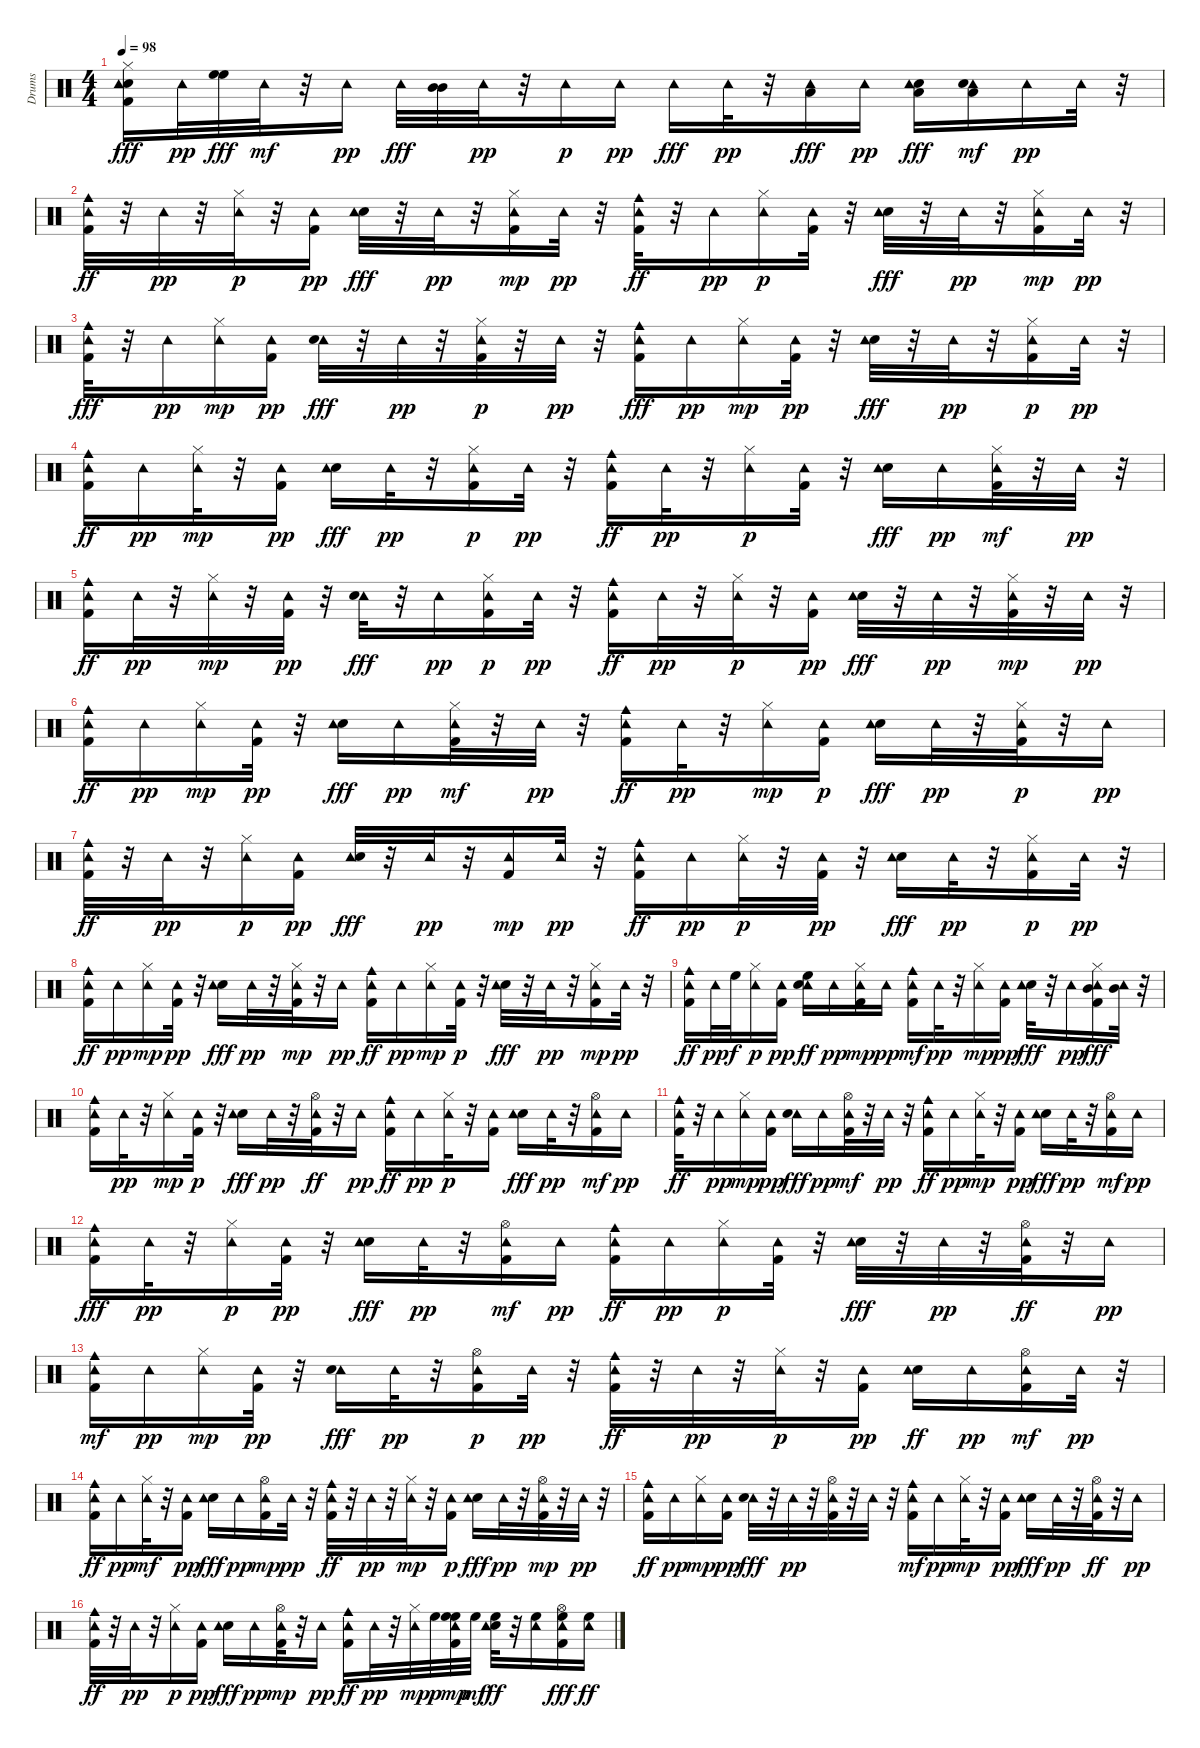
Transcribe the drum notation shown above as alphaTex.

\track ("Drums" "Drums") {instrument percussion}
\staff {score}
\articulation defaults
\ts (4 4)
\tempo 98
\clef neutral
\ks c
("Electric Snare (hit)" "Tambourine (hit)" "Kick (hit) 2" "Hi-Hat (closed)").16{dy fff} "Tambourine (hit)".32{dy pp} ("High Floor Tom (hit)" "High Floor Tom (hit)").32{dy fff} "Tambourine (hit)".32{dy mf} r.32 "Tambourine (hit)".16{dy pp} "Tambourine (hit)".32{dy fff} ("Mid Tom (hit)" "Mid Tom (hit)").32 "Tambourine (hit)".32{dy pp} r.32 "Tambourine (hit)".16{dy p} "Tambourine (hit)".16{dy pp} "Tambourine (hit)".16{dy fff} "Tambourine (hit)".32{dy pp} r.32 ("Tambourine (hit)" "Low Floor Tom (hit)").16{dy fff} "Tambourine (hit)".16{dy pp} ("Electric Snare (hit)" "Tambourine (hit)" "Low Floor Tom (hit)").16{dy fff} ("Low Floor Tom (hit)" "Tambourine (hit)" "Electric Snare (hit)").16{dy mf} "Tambourine (hit)".16{dy pp} "Tambourine (hit)".32 r.32 |
("Tambourine (hit)" "Kick (hit) 2" "Cowbell medium (hit)").32{dy ff} r.32 "Tambourine (hit)".32{dy pp} r.32 ("Hi-Hat (closed)" "Tambourine (hit)").32{dy p} r.32 ("Kick (hit) 2" "Tambourine (hit)").16{dy pp} ("Electric Snare (hit)" "Tambourine (hit)").32{dy fff} r.32 "Tambourine (hit)".32{dy pp} r.32 ("Hi-Hat (closed)" "Kick (hit) 2" "Tambourine (hit)").16{dy mp} "Tambourine (hit)".32{dy pp} r.32 ("Tambourine (hit)" "Kick (hit) 2" "Cowbell medium (hit)").32{dy ff} r.32 "Tambourine (hit)".16{dy pp} ("Hi-Hat (closed)" "Tambourine (hit)").16{dy p} ("Kick (hit) 2" "Tambourine (hit)").32 r.32 ("Electric Snare (hit)" "Tambourine (hit)").32{dy fff} r.32 "Tambourine (hit)".32{dy pp} r.32 ("Kick (hit) 2" "Hi-Hat (closed)" "Tambourine (hit)").16{dy mp} "Tambourine (hit)".32{dy pp} r.32 |
("Tambourine (hit)" "Kick (hit) 2" "Cowbell medium (hit)").32{dy fff} r.32 "Tambourine (hit)".16{dy pp} ("Hi-Hat (closed)" "Tambourine (hit)").16{dy mp} ("Kick (hit) 2" "Tambourine (hit)").16{dy pp} ("Tambourine (hit)" "Electric Snare (hit)").32{dy fff} r.32 "Tambourine (hit)".32{dy pp} r.32 ("Hi-Hat (closed)" "Kick (hit) 2" "Tambourine (hit)").32{dy p} r.32 "Tambourine (hit)".32{dy pp} r.32 ("Tambourine (hit)" "Kick (hit) 2" "Cowbell medium (hit)").16{dy fff} "Tambourine (hit)".16{dy pp} ("Hi-Hat (closed)" "Tambourine (hit)").16{dy mp} ("Kick (hit) 2" "Tambourine (hit)").32{dy pp} r.32 ("Electric Snare (hit)" "Tambourine (hit)").32{dy fff} r.32 "Tambourine (hit)".32{dy pp} r.32 ("Hi-Hat (closed)" "Kick (hit) 2" "Tambourine (hit)").16{dy p} "Tambourine (hit)".32{dy pp} r.32 |
("Tambourine (hit)" "Kick (hit) 2" "Cowbell medium (hit)").16{dy ff} "Tambourine (hit)".16{dy pp} ("Hi-Hat (closed)" "Tambourine (hit)").32{dy mp} r.32 ("Kick (hit) 2" "Tambourine (hit)").16{dy pp} ("Electric Snare (hit)" "Tambourine (hit)").16{dy fff} "Tambourine (hit)".32{dy pp} r.32 ("Hi-Hat (closed)" "Kick (hit) 2" "Tambourine (hit)").16{dy p} "Tambourine (hit)".32{dy pp} r.32 ("Tambourine (hit)" "Kick (hit) 2" "Cowbell medium (hit)").16{dy ff} "Tambourine (hit)".32{dy pp} r.32 ("Hi-Hat (closed)" "Tambourine (hit)").16{dy p} ("Kick (hit) 2" "Tambourine (hit)").32 r.32 ("Electric Snare (hit)" "Tambourine (hit)").16{dy fff} "Tambourine (hit)".16{dy pp} ("Kick (hit) 2" "Hi-Hat (closed)" "Tambourine (hit)").32{dy mf} r.32 "Tambourine (hit)".32{dy pp} r.32 |
("Tambourine (hit)" "Kick (hit) 2" "Cowbell medium (hit)").16{dy ff} "Tambourine (hit)".32{dy pp} r.32 ("Hi-Hat (closed)" "Tambourine (hit)").32{dy mp} r.32 ("Kick (hit) 2" "Tambourine (hit)").32{dy pp} r.32 ("Tambourine (hit)" "Electric Snare (hit)").32{dy fff} r.32 "Tambourine (hit)".16{dy pp} ("Hi-Hat (closed)" "Kick (hit) 2" "Tambourine (hit)").16{dy p} "Tambourine (hit)".32{dy pp} r.32 ("Tambourine (hit)" "Kick (hit) 2" "Cowbell medium (hit)").16{dy ff} "Tambourine (hit)".32{dy pp} r.32 ("Hi-Hat (closed)" "Tambourine (hit)").32{dy p} r.32 ("Kick (hit) 2" "Tambourine (hit)").16{dy pp} ("Electric Snare (hit)" "Tambourine (hit)").32{dy fff} r.32 "Tambourine (hit)".32{dy pp} r.32 ("Hi-Hat (closed)" "Kick (hit) 2" "Tambourine (hit)").32{dy mp} r.32 "Tambourine (hit)".32{dy pp} r.32 |
("Tambourine (hit)" "Kick (hit) 2" "Cowbell medium (hit)").16{dy ff} "Tambourine (hit)".16{dy pp} ("Hi-Hat (closed)" "Tambourine (hit)").16{dy mp} ("Kick (hit) 2" "Tambourine (hit)").32{dy pp} r.32 ("Electric Snare (hit)" "Tambourine (hit)").16{dy fff} "Tambourine (hit)".16{dy pp} ("Hi-Hat (closed)" "Kick (hit) 2" "Tambourine (hit)").32{dy mf} r.32 "Tambourine (hit)".32{dy pp} r.32 ("Tambourine (hit)" "Cowbell medium (hit)" "Kick (hit) 2").16{dy ff} "Tambourine (hit)".32{dy pp} r.32 ("Hi-Hat (closed)" "Tambourine (hit)").16{dy mp} ("Kick (hit) 2" "Tambourine (hit)").16{dy p} ("Electric Snare (hit)" "Tambourine (hit)").16{dy fff} "Tambourine (hit)".32{dy pp} r.32 ("Kick (hit) 2" "Hi-Hat (closed)" "Tambourine (hit)").32{dy p} r.32 "Tambourine (hit)".16{dy pp} |
("Tambourine (hit)" "Kick (hit) 2" "Cowbell medium (hit)").32{dy ff} r.32 "Tambourine (hit)".32{dy pp} r.32 ("Hi-Hat (closed)" "Tambourine (hit)").16{dy p} ("Kick (hit) 2" "Tambourine (hit)").16{dy pp} ("Tambourine (hit)" "Electric Snare (hit)").32{dy fff} r.32 "Tambourine (hit)".32{dy pp} r.32 ("Kick (hit) 2" "Tambourine (hit)").16{dy mp} "Tambourine (hit)".32{dy pp} r.32 ("Tambourine (hit)" "Kick (hit) 2" "Cowbell medium (hit)").16{dy ff} "Tambourine (hit)".16{dy pp} ("Hi-Hat (closed)" "Tambourine (hit)").32{dy p} r.32 ("Kick (hit) 2" "Tambourine (hit)").32{dy pp} r.32 ("Electric Snare (hit)" "Tambourine (hit)").16{dy fff} "Tambourine (hit)".32{dy pp} r.32 ("Hi-Hat (closed)" "Kick (hit) 2" "Tambourine (hit)").16{dy p} "Tambourine (hit)".32{dy pp} r.32 |
("Tambourine (hit)" "Kick (hit) 2" "Cowbell medium (hit)").16{dy ff} "Tambourine (hit)".16{dy pp} ("Hi-Hat (closed)" "Tambourine (hit)").16{dy mp} ("Kick (hit) 2" "Tambourine (hit)").32{dy pp} r.32 ("Electric Snare (hit)" "Tambourine (hit)").16{dy fff} "Tambourine (hit)".32{dy pp} r.32 ("Hi-Hat (closed)" "Kick (hit) 2" "Tambourine (hit)").32{dy mp} r.32 "Tambourine (hit)".16{dy pp} ("Tambourine (hit)" "Kick (hit) 2" "Cowbell medium (hit)").16{dy ff} "Tambourine (hit)".16{dy pp} ("Hi-Hat (closed)" "Tambourine (hit)").16{dy mp} ("Kick (hit) 2" "Tambourine (hit)").32{dy p} r.32 ("Electric Snare (hit)" "Tambourine (hit)").32{dy fff} r.32 "Tambourine (hit)".32{dy pp} r.32 ("Kick (hit) 2" "Hi-Hat (closed)" "Tambourine (hit)").16{dy mp} "Tambourine (hit)".32{dy pp} r.32 |
("Tambourine (hit)" "Cowbell medium (hit)" "Kick (hit) 2").16{dy ff} "Tambourine (hit)".32{dy pp} "High Floor Tom (hit)".32{dy f} ("Hi-Hat (closed)" "Tambourine (hit)").16{dy p} ("Kick (hit) 2" "Tambourine (hit)").16{dy pp} ("Tambourine (hit)" "Electric Snare (hit)" "High Floor Tom (hit)").16{dy ff} "Tambourine (hit)".16{dy pp} ("Hi-Hat (closed)" "Kick (hit) 2" "Tambourine (hit)").16{dy mp} "Tambourine (hit)".16{dy pp} ("Tambourine (hit)" "Kick (hit) 2" "Cowbell medium (hit)").16{dy mf} "Tambourine (hit)".32{dy pp} r.32 ("Hi-Hat (closed)" "Tambourine (hit)").16{dy mp} ("Kick (hit) 2" "Tambourine (hit)").16{dy pp} ("Electric Snare (hit)" "Tambourine (hit)").32{dy fff} r.32 "Tambourine (hit)".16{dy pp} ("Hi-Hat (closed)" "Kick (hit) 2" "Tambourine (hit)" "Mid Tom (hit)").16{dy fff} ("Tambourine (hit)" "Mid Tom (hit)").32 r.32 |
("Tambourine (hit)" "Kick (hit) 2" "Cowbell medium (hit)").16 "Tambourine (hit)".32{dy pp} r.32 ("Hi-Hat (closed)" "Tambourine (hit)").16{dy mp} ("Kick (hit) 2" "Tambourine (hit)").32{dy p} r.32 ("Electric Snare (hit)" "Tambourine (hit)").16{dy fff} "Tambourine (hit)".32{dy pp} r.32 ("Kick (hit) 2" "Tambourine (hit)" "Hi-Hat (open)").32{dy ff} r.32 "Tambourine (hit)".16{dy pp} ("Tambourine (hit)" "Cowbell medium (hit)" "Kick (hit) 2").16{dy ff} "Tambourine (hit)".16{dy pp} ("Hi-Hat (closed)" "Tambourine (hit)").32{dy p} r.32 ("Kick (hit) 2" "Tambourine (hit)").16 ("Electric Snare (hit)" "Tambourine (hit)").16{dy fff} "Tambourine (hit)".32{dy pp} r.32 ("Kick (hit) 2" "Tambourine (hit)" "Hi-Hat (open)").16{dy mf} "Tambourine (hit)".16{dy pp} |
("Tambourine (hit)" "Cowbell medium (hit)" "Kick (hit) 2").32{dy ff} r.32 "Tambourine (hit)".16{dy pp} ("Hi-Hat (closed)" "Tambourine (hit)").16{dy mp} ("Kick (hit) 2" "Tambourine (hit)").16{dy pp} ("Tambourine (hit)" "Electric Snare (hit)").16{dy fff} "Tambourine (hit)".16{dy pp} ("Kick (hit) 2" "Tambourine (hit)" "Hi-Hat (open)").32{dy mf} r.32 "Tambourine (hit)".32{dy pp} r.32 ("Tambourine (hit)" "Kick (hit) 2" "Cowbell medium (hit)").16{dy ff} "Tambourine (hit)".16{dy pp} ("Hi-Hat (closed)" "Tambourine (hit)").32{dy mp} r.32 ("Kick (hit) 2" "Tambourine (hit)").16{dy pp} ("Electric Snare (hit)" "Tambourine (hit)").16{dy fff} "Tambourine (hit)".32{dy pp} r.32 ("Kick (hit) 2" "Hi-Hat (open)" "Tambourine (hit)").16{dy mf} "Tambourine (hit)".16{dy pp} |
("Tambourine (hit)" "Kick (hit) 2" "Cowbell medium (hit)").16{dy fff} "Tambourine (hit)".32{dy pp} r.32 ("Hi-Hat (closed)" "Tambourine (hit)").16{dy p} ("Kick (hit) 2" "Tambourine (hit)").32{dy pp} r.32 ("Electric Snare (hit)" "Tambourine (hit)").16{dy fff} "Tambourine (hit)".32{dy pp} r.32 ("Kick (hit) 2" "Tambourine (hit)" "Hi-Hat (open)").16{dy mf} "Tambourine (hit)".16{dy pp} ("Tambourine (hit)" "Kick (hit) 2" "Cowbell medium (hit)").16{dy ff} "Tambourine (hit)".16{dy pp} ("Hi-Hat (closed)" "Tambourine (hit)").16{dy p} ("Kick (hit) 2" "Tambourine (hit)").32 r.32 ("Electric Snare (hit)" "Tambourine (hit)").32{dy fff} r.32 "Tambourine (hit)".32{dy pp} r.32 ("Kick (hit) 2" "Tambourine (hit)" "Hi-Hat (open)").32{dy ff} r.32 "Tambourine (hit)".16{dy pp} |
("Tambourine (hit)" "Kick (hit) 2" "Cowbell medium (hit)").16{dy mf} "Tambourine (hit)".16{dy pp} ("Hi-Hat (closed)" "Tambourine (hit)").16{dy mp} ("Kick (hit) 2" "Tambourine (hit)").32{dy pp} r.32 ("Tambourine (hit)" "Electric Snare (hit)").16{dy fff} "Tambourine (hit)".32{dy pp} r.32 ("Kick (hit) 2" "Hi-Hat (open)" "Tambourine (hit)").16{dy p} "Tambourine (hit)".32{dy pp} r.32 ("Tambourine (hit)" "Kick (hit) 2" "Cowbell medium (hit)").32{dy ff} r.32 "Tambourine (hit)".32{dy pp} r.32 ("Hi-Hat (closed)" "Tambourine (hit)").32{dy p} r.32 ("Kick (hit) 2" "Tambourine (hit)").16{dy pp} ("Electric Snare (hit)" "Tambourine (hit)").16{dy ff} "Tambourine (hit)".16{dy pp} ("Kick (hit) 2" "Tambourine (hit)" "Hi-Hat (open)").16{dy mf} "Tambourine (hit)".32{dy pp} r.32 |
("Tambourine (hit)" "Kick (hit) 2" "Cowbell medium (hit)").16{dy ff} "Tambourine (hit)".16{dy pp} ("Hi-Hat (closed)" "Tambourine (hit)").32{dy mf} r.32 ("Kick (hit) 2" "Tambourine (hit)").16{dy pp} ("Electric Snare (hit)" "Tambourine (hit)").16{dy fff} "Tambourine (hit)".16{dy pp} ("Kick (hit) 2" "Tambourine (hit)" "Hi-Hat (open)").16{dy mp} "Tambourine (hit)".32{dy pp} r.32 ("Tambourine (hit)" "Kick (hit) 2" "Cowbell medium (hit)").32{dy ff} r.32 "Tambourine (hit)".32{dy pp} r.32 ("Hi-Hat (closed)" "Tambourine (hit)").32{dy mp} r.32 ("Kick (hit) 2" "Tambourine (hit)").16{dy p} ("Electric Snare (hit)" "Tambourine (hit)").16{dy fff} "Tambourine (hit)".32{dy pp} r.32 ("Kick (hit) 2" "Hi-Hat (open)" "Tambourine (hit)").32{dy mp} r.32 "Tambourine (hit)".32{dy pp} r.32 |
("Tambourine (hit)" "Kick (hit) 2" "Cowbell medium (hit)").16{dy ff} "Tambourine (hit)".16{dy pp} ("Hi-Hat (closed)" "Tambourine (hit)").16{dy mp} ("Kick (hit) 2" "Tambourine (hit)").16{dy pp} ("Tambourine (hit)" "Electric Snare (hit)").32{dy fff} r.32 "Tambourine (hit)".32{dy pp} r.32 ("Kick (hit) 2" "Tambourine (hit)" "Hi-Hat (open)").32 r.32 "Tambourine (hit)".32 r.32 ("Tambourine (hit)" "Kick (hit) 2" "Cowbell medium (hit)").16{dy mf} "Tambourine (hit)".16{dy pp} ("Hi-Hat (closed)" "Tambourine (hit)").32{dy mp} r.32 ("Kick (hit) 2" "Tambourine (hit)").16{dy pp} ("Electric Snare (hit)" "Tambourine (hit)").16{dy fff} "Tambourine (hit)".32{dy pp} r.32 ("Kick (hit) 2" "Tambourine (hit)" "Hi-Hat (open)").32{dy ff} r.32 "Tambourine (hit)".16{dy pp} |
("Tambourine (hit)" "Kick (hit) 2" "Cowbell medium (hit)").32{dy ff} r.32 "Tambourine (hit)".32{dy pp} r.32 ("Hi-Hat (closed)" "Tambourine (hit)").16{dy p} ("Kick (hit) 2" "Tambourine (hit)").16{dy pp} ("Electric Snare (hit)" "Tambourine (hit)").16{dy fff} "Tambourine (hit)".16{dy pp} ("Kick (hit) 2" "Tambourine (hit)" "Hi-Hat (open)").32{dy mp} r.32 "Tambourine (hit)".16{dy pp} ("Tambourine (hit)" "Kick (hit) 2" "Cowbell medium (hit)").16{dy ff} "Tambourine (hit)".32{dy pp} r.32 ("Hi-Hat (closed)" "Tambourine (hit)").32{dy mp} "High Floor Tom (hit)".32{dy p} ("High Floor Tom (hit)" "Kick (hit) 2" "Tambourine (hit)" "High Floor Tom (hit)").32{dy mp} "High Floor Tom (hit)".32{dy mf} ("Electric Snare (hit)" "Tambourine (hit)" "High Floor Tom (hit)").32{dy ff} r.32 ("Tambourine (hit)" "High Floor Tom (hit)").16 ("Kick (hit) 2" "Tambourine (hit)" "Hi-Hat (open)" "High Floor Tom (hit)").16{dy fff} ("Tambourine (hit)" "High Floor Tom (hit)").16{dy ff}
